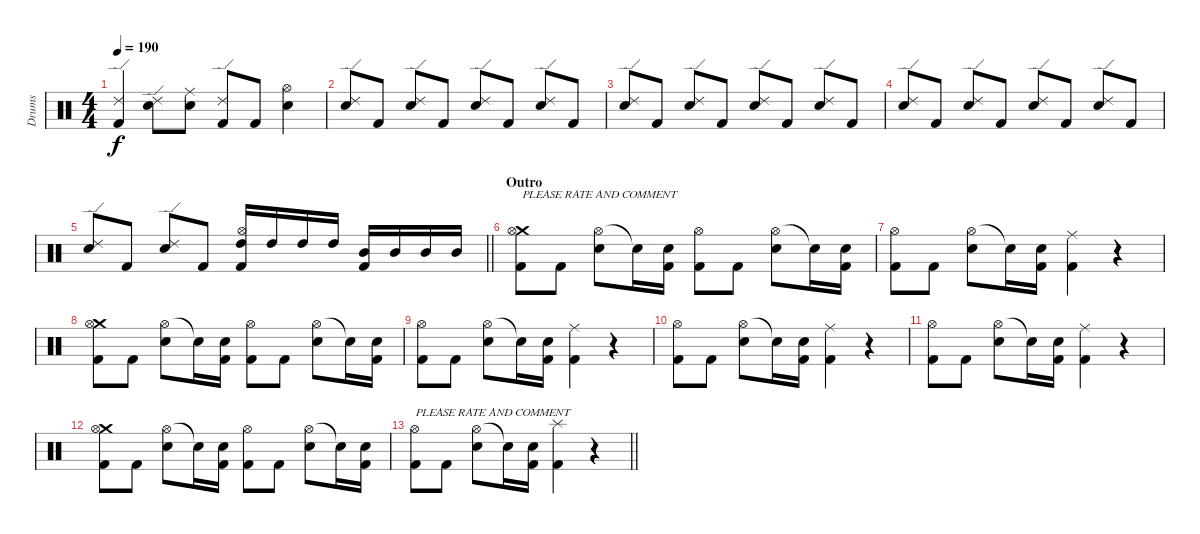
\track ("Drums" "Drums") {instrument percussion}
\staff {score}
\articulation defaults
\ts (4 4)
\tempo 190
\clef neutral
\ks c
("Ride (edge) 2" "Kick (hit) 2").4{dy f} ("Ride (edge) 2" "Electric Snare (hit)").8 ("Ride (middle)" "Electric Snare (hit)").8 ("Ride (edge) 2" "Kick (hit) 2").8 "Kick (hit) 2".8 ("Hi-Hat (open)" "Electric Snare (hit)").4 |
("Ride (edge) 2" "Electric Snare (hit)").8 "Kick (hit) 2".8 ("Ride (edge) 2" "Electric Snare (hit)").8 "Kick (hit) 2".8 ("Ride (edge) 2" "Electric Snare (hit)").8 "Kick (hit) 2".8 ("Ride (edge) 2" "Electric Snare (hit)").8 "Kick (hit) 2".8 |
("Ride (edge) 2" "Electric Snare (hit)").8 "Kick (hit) 2".8 ("Ride (edge) 2" "Electric Snare (hit)").8 "Kick (hit) 2".8 ("Ride (edge) 2" "Electric Snare (hit)").8 "Kick (hit) 2".8 ("Ride (edge) 2" "Electric Snare (hit)").8 "Kick (hit) 2".8 |
("Ride (edge) 2" "Electric Snare (hit)").8 "Kick (hit) 2".8 ("Ride (edge) 2" "Electric Snare (hit)").8 "Kick (hit) 2".8 ("Ride (edge) 2" "Electric Snare (hit)").8 "Kick (hit) 2".8 ("Ride (edge) 2" "Electric Snare (hit)").8 "Kick (hit) 2".8 |
\barLineRight lightlight
("Ride (edge) 2" "Electric Snare (hit)").8 "Kick (hit) 2".8 ("Ride (edge) 2" "Electric Snare (hit)").8 "Kick (hit) 2".8 ("Hi-Hat (open)" "High Tom (hit)" "Kick (hit) 2").16 "High Tom (hit)".16 "High Tom (hit)".16 "High Tom (hit)".16 ("Mid Tom (hit)" "Kick (hit) 2").16 "Mid Tom (hit)".16 "Mid Tom (hit)".16 "Mid Tom (hit)".16 |
\section ("" "Outro")
("Crash medium (hit)" "Hi-Hat (open)" "Kick (hit) 2").8{txt "PLEASE RATE AND COMMENT"} "Kick (hit) 2".8 ("Hi-Hat (open)" "Electric Snare (hit)").8 "Snare (hit)"{t}.16 ("Electric Snare (hit)" "Kick (hit) 2").16 ("Hi-Hat (open)" "Kick (hit) 2").8 "Kick (hit) 2".8 ("Hi-Hat (open)" "Electric Snare (hit)").8 "Snare (hit)"{t}.16 ("Electric Snare (hit)" "Kick (hit) 2").16 |
("Hi-Hat (open)" "Kick (hit) 2").8 "Kick (hit) 2".8 ("Hi-Hat (open)" "Electric Snare (hit)").8 "Snare (hit)"{t}.16 ("Electric Snare (hit)" "Kick (hit) 2").16 ("Ride (middle)" "Kick (hit) 2").4 r.4 |
("Crash medium (hit)" "Hi-Hat (open)" "Kick (hit) 2").8 "Kick (hit) 2".8 ("Hi-Hat (open)" "Electric Snare (hit)").8 "Snare (hit)"{t}.16 ("Electric Snare (hit)" "Kick (hit) 2").16 ("Hi-Hat (open)" "Kick (hit) 2").8 "Kick (hit) 2".8 ("Hi-Hat (open)" "Electric Snare (hit)").8 "Snare (hit)"{t}.16 ("Electric Snare (hit)" "Kick (hit) 2").16 |
("Hi-Hat (open)" "Kick (hit) 2").8 "Kick (hit) 2".8 ("Hi-Hat (open)" "Electric Snare (hit)").8 "Snare (hit)"{t}.16 ("Electric Snare (hit)" "Kick (hit) 2").16 ("Ride (middle)" "Kick (hit) 2").4 r.4 |
("Hi-Hat (open)" "Kick (hit) 2").8 "Kick (hit) 2".8 ("Hi-Hat (open)" "Electric Snare (hit)").8 "Snare (hit)"{t}.16 ("Electric Snare (hit)" "Kick (hit) 2").16 ("Ride (middle)" "Kick (hit) 2").4 r.4 |
("Hi-Hat (open)" "Kick (hit) 2").8 "Kick (hit) 2".8 ("Hi-Hat (open)" "Electric Snare (hit)").8 "Snare (hit)"{t}.16 ("Electric Snare (hit)" "Kick (hit) 2").16 ("Ride (middle)" "Kick (hit) 2").4 r.4 |
("Crash medium (hit)" "Hi-Hat (open)" "Kick (hit) 2").8 "Kick (hit) 2".8 ("Hi-Hat (open)" "Electric Snare (hit)").8 "Snare (hit)"{t}.16 ("Electric Snare (hit)" "Kick (hit) 2").16 ("Hi-Hat (open)" "Kick (hit) 2").8 "Kick (hit) 2".8 ("Hi-Hat (open)" "Electric Snare (hit)").8 "Snare (hit)"{t}.16 ("Electric Snare (hit)" "Kick (hit) 2").16 |
\barLineRight lightlight
("Hi-Hat (open)" "Kick (hit) 2").8{txt "PLEASE RATE AND COMMENT"} "Kick (hit) 2".8 ("Hi-Hat (open)" "Electric Snare (hit)").8 "Snare (hit)"{t}.16 ("Electric Snare (hit)" "Kick (hit) 2").16 ("Splash (hit)" "Kick (hit) 2").4 r.4
